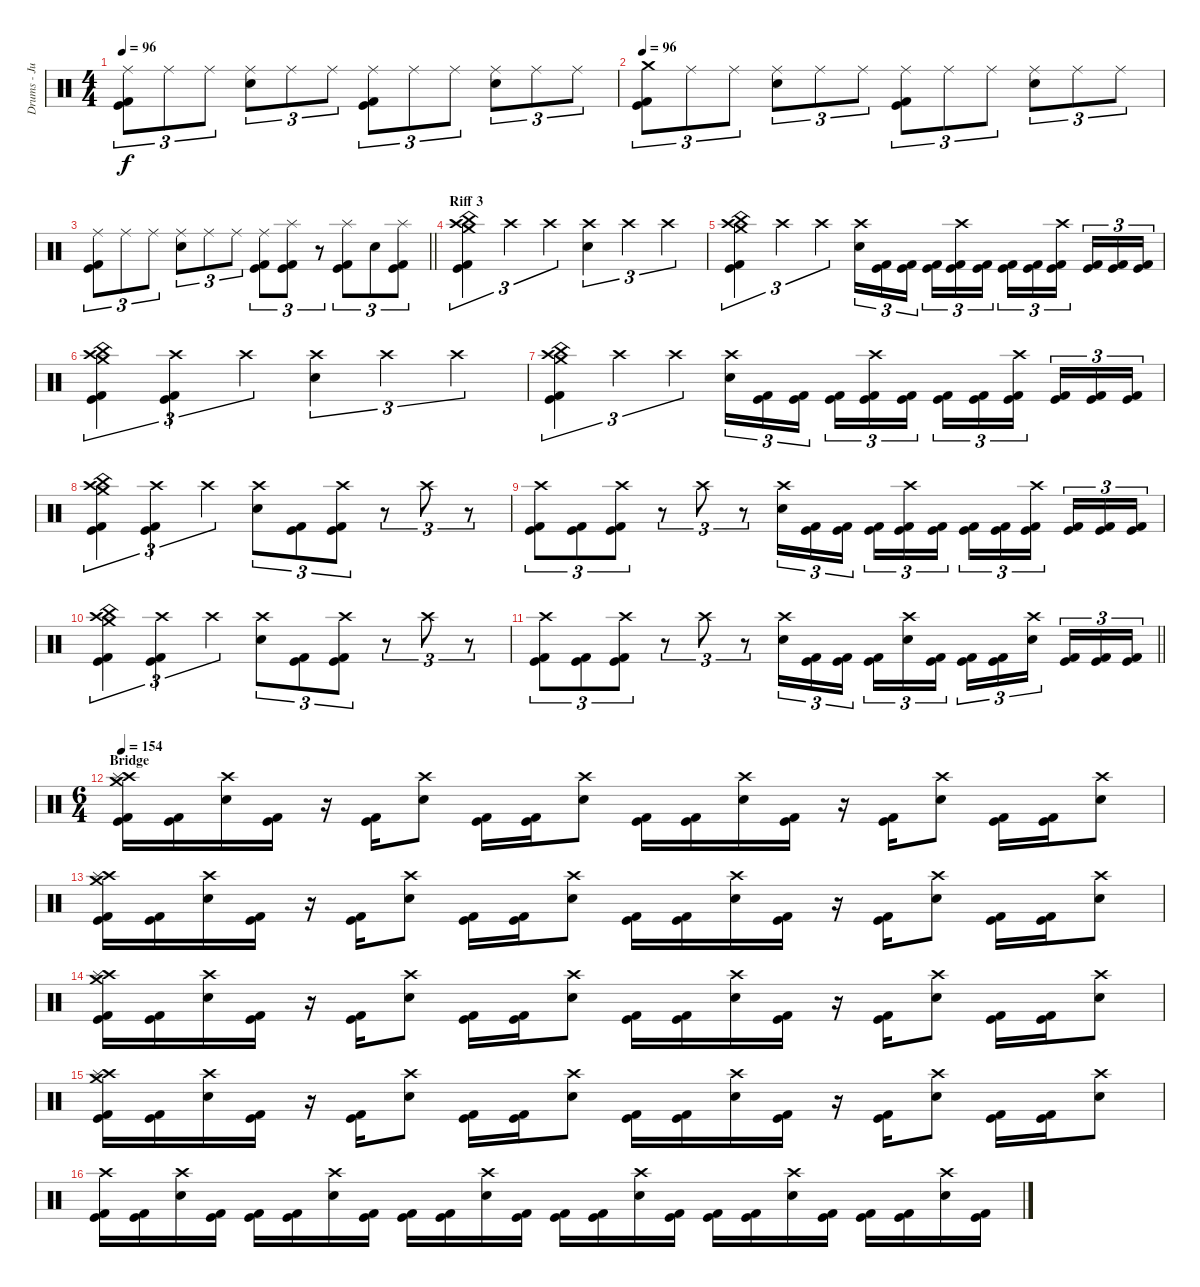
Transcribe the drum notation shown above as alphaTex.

\track ("Drums - Justin Foley" "Drums - Ju") {instrument percussion}
\staff {score}
\articulation defaults
\ts (4 4)
\tempo 96
\clef neutral
\ks c
("Ride (middle)" "Kick (hit) 2" "Kick (hit)").8{tu (3 2) dy f} "Ride (middle)".8{tu (3 2)} "Ride (middle)".8{tu (3 2)} ("Ride (middle)" "Snare (hit) 2").8{tu (3 2)} "Ride (middle)".8{tu (3 2)} "Ride (middle)".8{tu (3 2)} ("Ride (middle)" "Kick (hit) 2" "Kick (hit)").8{tu (3 2)} "Ride (middle)".8{tu (3 2)} "Ride (middle)".8{tu (3 2)} ("Ride (middle)" "Snare (hit) 2").8{tu (3 2)} "Ride (middle)".8{tu (3 2)} "Ride (middle)".8{tu (3 2)} |
\tempo 96
("Crash medium (hit)" "Kick (hit) 2" "Kick (hit)").8{tu (3 2)} "Ride (middle)".8{tu (3 2)} "Ride (middle)".8{tu (3 2)} ("Ride (middle)" "Snare (hit) 2").8{tu (3 2)} "Ride (middle)".8{tu (3 2)} "Ride (middle)".8{tu (3 2)} ("Ride (middle)" "Kick (hit) 2" "Kick (hit)").8{tu (3 2)} "Ride (middle)".8{tu (3 2)} "Ride (middle)".8{tu (3 2)} ("Ride (middle)" "Snare (hit) 2").8{tu (3 2)} "Ride (middle)".8{tu (3 2)} "Ride (middle)".8{tu (3 2)} |
\barLineRight lightlight
("Ride (middle)" "Kick (hit) 2" "Kick (hit)").8{tu (3 2)} "Ride (middle)".8{tu (3 2)} "Ride (middle)".8{tu (3 2)} ("Ride (middle)" "Snare (hit) 2").8{tu (3 2)} "Ride (middle)".8{tu (3 2)} "Ride (middle)".8{tu (3 2)} ("Ride (middle)" "Kick (hit) 2" "Kick (hit)").8{tu (3 2)} ("Splash (hit)" "Kick (hit) 2" "Kick (hit)").8{tu (3 2)} r.8{tu (3 2)} ("Splash (hit)" "Kick (hit) 2" "Kick (hit)").8{tu (3 2)} "Snare (hit) 2".8{tu (3 2)} ("Splash (hit)" "Kick (hit) 2" "Kick (hit)").8{tu (3 2)} |
\section ("" "Riff 3")
("Crash high (hit)" "Kick (hit) 2" "Kick (hit)" "Crash medium (hit)" "China (hit)").4{tu (3 2)} "Crash high (hit)".4{tu (3 2)} "Crash high (hit)".4{tu (3 2)} ("Crash high (hit)" "Snare (hit) 2").4{tu (3 2)} "Crash high (hit)".4{tu (3 2)} "Crash high (hit)".4{tu (3 2)} |
("Crash high (hit)" "Kick (hit) 2" "Kick (hit)" "Crash medium (hit)" "China (hit)").4{tu (3 2)} "Crash high (hit)".4{tu (3 2)} "Crash high (hit)".4{tu (3 2)} ("Crash high (hit)" "Snare (hit) 2").16{tu (3 2)} ("Kick (hit) 2" "Kick (hit)").16{tu (3 2)} ("Kick (hit) 2" "Kick (hit)").16{tu (3 2) beam splitsecondary} ("Kick (hit) 2" "Kick (hit)").16{tu (3 2)} ("Crash high (hit)" "Kick (hit) 2" "Kick (hit)").16{tu (3 2)} ("Kick (hit) 2" "Kick (hit)").16{tu (3 2)} ("Kick (hit) 2" "Kick (hit)").16{tu (3 2)} ("Kick (hit) 2" "Kick (hit)").16{tu (3 2)} ("Crash high (hit)" "Kick (hit) 2" "Kick (hit)").16{tu (3 2) beam splitsecondary} ("Kick (hit) 2" "Kick (hit)").16{tu (3 2)} ("Kick (hit) 2" "Kick (hit)").16{tu (3 2)} ("Kick (hit) 2" "Kick (hit)").16{tu (3 2)} |
("Crash high (hit)" "Kick (hit) 2" "Kick (hit)" "Crash medium (hit)" "China (hit)").4{tu (3 2)} ("Crash high (hit)" "Kick (hit) 2" "Kick (hit)").4{tu (3 2)} "Crash high (hit)".4{tu (3 2)} ("Crash high (hit)" "Snare (hit) 2").4{tu (3 2)} "Crash high (hit)".4{tu (3 2)} "Crash high (hit)".4{tu (3 2)} |
("Crash high (hit)" "Kick (hit) 2" "Kick (hit)" "Crash medium (hit)" "China (hit)").4{tu (3 2)} "Crash high (hit)".4{tu (3 2)} "Crash high (hit)".4{tu (3 2)} ("Crash high (hit)" "Snare (hit) 2").16{tu (3 2)} ("Kick (hit) 2" "Kick (hit)").16{tu (3 2)} ("Kick (hit) 2" "Kick (hit)").16{tu (3 2) beam splitsecondary} ("Kick (hit) 2" "Kick (hit)").16{tu (3 2)} ("Crash high (hit)" "Kick (hit) 2" "Kick (hit)").16{tu (3 2)} ("Kick (hit) 2" "Kick (hit)").16{tu (3 2)} ("Kick (hit) 2" "Kick (hit)").16{tu (3 2)} ("Kick (hit) 2" "Kick (hit)").16{tu (3 2)} ("Crash high (hit)" "Kick (hit) 2" "Kick (hit)").16{tu (3 2) beam splitsecondary} ("Kick (hit) 2" "Kick (hit)").16{tu (3 2)} ("Kick (hit) 2" "Kick (hit)").16{tu (3 2)} ("Kick (hit) 2" "Kick (hit)").16{tu (3 2)} |
("Crash high (hit)" "Kick (hit) 2" "Kick (hit)" "Crash medium (hit)" "China (hit)").4{tu (3 2)} ("Crash high (hit)" "Kick (hit) 2" "Kick (hit)").4{tu (3 2)} "Crash high (hit)".4{tu (3 2)} ("Crash high (hit)" "Snare (hit) 2").8{tu (3 2)} ("Kick (hit) 2" "Kick (hit)").8{tu (3 2)} ("Crash high (hit)" "Kick (hit) 2" "Kick (hit)").8{tu (3 2)} r.8{tu (3 2)} "Crash high (hit)".8{tu (3 2)} r.8{tu (3 2)} |
("Crash high (hit)" "Kick (hit) 2" "Kick (hit)").8{tu (3 2)} ("Kick (hit) 2" "Kick (hit)").8{tu (3 2)} ("Crash high (hit)" "Kick (hit) 2" "Kick (hit)").8{tu (3 2)} r.8{tu (3 2)} "Crash high (hit)".8{tu (3 2)} r.8{tu (3 2)} ("Crash high (hit)" "Snare (hit) 2").16{tu (3 2)} ("Kick (hit) 2" "Kick (hit)").16{tu (3 2)} ("Kick (hit) 2" "Kick (hit)").16{tu (3 2) beam splitsecondary} ("Kick (hit) 2" "Kick (hit)").16{tu (3 2)} ("Crash high (hit)" "Kick (hit) 2" "Kick (hit)").16{tu (3 2)} ("Kick (hit) 2" "Kick (hit)").16{tu (3 2)} ("Kick (hit) 2" "Kick (hit)").16{tu (3 2)} ("Kick (hit) 2" "Kick (hit)").16{tu (3 2)} ("Crash high (hit)" "Kick (hit) 2" "Kick (hit)").16{tu (3 2) beam splitsecondary} ("Kick (hit) 2" "Kick (hit)").16{tu (3 2)} ("Kick (hit) 2" "Kick (hit)").16{tu (3 2)} ("Kick (hit) 2" "Kick (hit)").16{tu (3 2)} |
("Crash high (hit)" "Kick (hit) 2" "Kick (hit)" "Crash medium (hit)" "China (hit)").4{tu (3 2)} ("Crash high (hit)" "Kick (hit) 2" "Kick (hit)").4{tu (3 2)} "Crash high (hit)".4{tu (3 2)} ("Crash high (hit)" "Snare (hit) 2").8{tu (3 2)} ("Kick (hit) 2" "Kick (hit)").8{tu (3 2)} ("Crash high (hit)" "Kick (hit) 2" "Kick (hit)").8{tu (3 2)} r.8{tu (3 2)} "Crash high (hit)".8{tu (3 2)} r.8{tu (3 2)} |
\barLineRight lightlight
("Crash high (hit)" "Kick (hit) 2" "Kick (hit)").8{tu (3 2)} ("Kick (hit) 2" "Kick (hit)").8{tu (3 2)} ("Crash high (hit)" "Kick (hit) 2" "Kick (hit)").8{tu (3 2)} r.8{tu (3 2)} "Crash high (hit)".8{tu (3 2)} r.8{tu (3 2)} ("Crash high (hit)" "Snare (hit) 2").16{tu (3 2)} ("Kick (hit) 2" "Kick (hit)").16{tu (3 2)} ("Kick (hit) 2" "Kick (hit)").16{tu (3 2) beam splitsecondary} ("Kick (hit) 2" "Kick (hit)").16{tu (3 2)} ("Crash high (hit)" "Snare (hit) 2").16{tu (3 2)} ("Kick (hit) 2" "Kick (hit)").16{tu (3 2)} ("Kick (hit) 2" "Kick (hit)").16{tu (3 2)} ("Kick (hit) 2" "Kick (hit)").16{tu (3 2)} ("Crash high (hit)" "Snare (hit) 2").16{tu (3 2) beam splitsecondary} ("Kick (hit) 2" "Kick (hit)").16{tu (3 2)} ("Kick (hit) 2" "Kick (hit)").16{tu (3 2)} ("Kick (hit) 2" "Kick (hit)").16{tu (3 2)} |
\ts (6 4)
\section ("" "Bridge")
\tempo 154
("Crash high (hit)" "Kick (hit) 2" "Kick (hit)" "Crash medium (hit)" "Splash (hit)").16 ("Kick (hit) 2" "Kick (hit)").16 ("Crash high (hit)" "Snare (hit) 2").16 ("Kick (hit) 2" "Kick (hit)").16 r.16 ("Kick (hit) 2" "Kick (hit)").16 ("Crash high (hit)" "Snare (hit) 2").8 ("Kick (hit) 2" "Kick (hit)").16 ("Kick (hit) 2" "Kick (hit)").16 ("Crash high (hit)" "Snare (hit) 2").8 ("Kick (hit) 2" "Kick (hit)").16 ("Kick (hit) 2" "Kick (hit)").16 ("Crash high (hit)" "Snare (hit) 2").16 ("Kick (hit) 2" "Kick (hit)").16 r.16 ("Kick (hit) 2" "Kick (hit)").16 ("Crash high (hit)" "Snare (hit) 2").8 ("Kick (hit) 2" "Kick (hit)").16 ("Kick (hit) 2" "Kick (hit)").16 ("Crash high (hit)" "Snare (hit) 2").8 |
("Crash high (hit)" "Kick (hit) 2" "Kick (hit)" "Crash medium (hit)" "Splash (hit)").16 ("Kick (hit) 2" "Kick (hit)").16 ("Crash high (hit)" "Snare (hit) 2").16 ("Kick (hit) 2" "Kick (hit)").16 r.16 ("Kick (hit) 2" "Kick (hit)").16 ("Crash high (hit)" "Snare (hit) 2").8 ("Kick (hit) 2" "Kick (hit)").16 ("Kick (hit) 2" "Kick (hit)").16 ("Crash high (hit)" "Snare (hit) 2").8 ("Kick (hit) 2" "Kick (hit)").16 ("Kick (hit) 2" "Kick (hit)").16 ("Crash high (hit)" "Snare (hit) 2").16 ("Kick (hit) 2" "Kick (hit)").16 r.16 ("Kick (hit) 2" "Kick (hit)").16 ("Crash high (hit)" "Snare (hit) 2").8 ("Kick (hit) 2" "Kick (hit)").16 ("Kick (hit) 2" "Kick (hit)").16 ("Crash high (hit)" "Snare (hit) 2").8 |
("Crash high (hit)" "Kick (hit) 2" "Kick (hit)" "Crash medium (hit)" "Splash (hit)").16 ("Kick (hit) 2" "Kick (hit)").16 ("Crash high (hit)" "Snare (hit) 2").16 ("Kick (hit) 2" "Kick (hit)").16 r.16 ("Kick (hit) 2" "Kick (hit)").16 ("Crash high (hit)" "Snare (hit) 2").8 ("Kick (hit) 2" "Kick (hit)").16 ("Kick (hit) 2" "Kick (hit)").16 ("Crash high (hit)" "Snare (hit) 2").8 ("Kick (hit) 2" "Kick (hit)").16 ("Kick (hit) 2" "Kick (hit)").16 ("Crash high (hit)" "Snare (hit) 2").16 ("Kick (hit) 2" "Kick (hit)").16 r.16 ("Kick (hit) 2" "Kick (hit)").16 ("Crash high (hit)" "Snare (hit) 2").8 ("Kick (hit) 2" "Kick (hit)").16 ("Kick (hit) 2" "Kick (hit)").16 ("Crash high (hit)" "Snare (hit) 2").8 |
("Crash high (hit)" "Kick (hit) 2" "Kick (hit)" "Crash medium (hit)" "Splash (hit)").16 ("Kick (hit) 2" "Kick (hit)").16 ("Crash high (hit)" "Snare (hit) 2").16 ("Kick (hit) 2" "Kick (hit)").16 r.16 ("Kick (hit) 2" "Kick (hit)").16 ("Crash high (hit)" "Snare (hit) 2").8 ("Kick (hit) 2" "Kick (hit)").16 ("Kick (hit) 2" "Kick (hit)").16 ("Crash high (hit)" "Snare (hit) 2").8 ("Kick (hit) 2" "Kick (hit)").16 ("Kick (hit) 2" "Kick (hit)").16 ("Crash high (hit)" "Snare (hit) 2").16 ("Kick (hit) 2" "Kick (hit)").16 r.16 ("Kick (hit) 2" "Kick (hit)").16 ("Crash high (hit)" "Snare (hit) 2").8 ("Kick (hit) 2" "Kick (hit)").16 ("Kick (hit) 2" "Kick (hit)").16 ("Crash high (hit)" "Snare (hit) 2").8 |
("Crash high (hit)" "Kick (hit) 2" "Kick (hit)").16 ("Kick (hit) 2" "Kick (hit)").16 ("Crash high (hit)" "Snare (hit) 2").16 ("Kick (hit) 2" "Kick (hit)").16 ("Kick (hit) 2" "Kick (hit)").16 ("Kick (hit) 2" "Kick (hit)").16 ("Crash high (hit)" "Snare (hit) 2").16 ("Kick (hit) 2" "Kick (hit)").16 ("Kick (hit) 2" "Kick (hit)").16 ("Kick (hit) 2" "Kick (hit)").16 ("Crash high (hit)" "Snare (hit) 2").16 ("Kick (hit) 2" "Kick (hit)").16 ("Kick (hit) 2" "Kick (hit)").16 ("Kick (hit) 2" "Kick (hit)").16 ("Crash high (hit)" "Snare (hit) 2").16 ("Kick (hit) 2" "Kick (hit)").16 ("Kick (hit) 2" "Kick (hit)").16 ("Kick (hit) 2" "Kick (hit)").16 ("Crash high (hit)" "Snare (hit) 2").16 ("Kick (hit) 2" "Kick (hit)").16 ("Kick (hit) 2" "Kick (hit)").16 ("Kick (hit) 2" "Kick (hit)").16 ("Crash high (hit)" "Snare (hit) 2").16 ("Kick (hit) 2" "Kick (hit)").16
